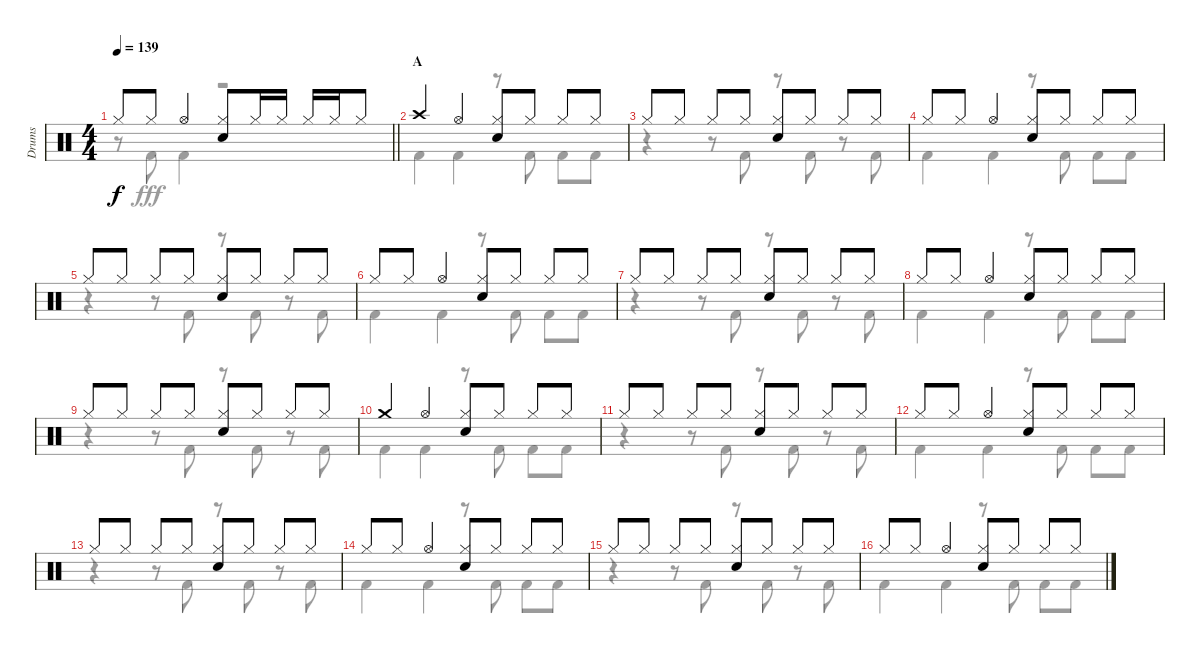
\track ("Drums" "Drums") {instrument percussion}
\staff {score}
\articulation defaults
\voice
\ts (4 4)
\tempo 139
\clef neutral
\barLineRight lightlight
\ks aminor "Hi-Hat (closed)".8{dy f} "Hi-Hat (closed)".8 "Hi-Hat (open)".4
("Hi-Hat (closed)" "Snare (hit) 2").8 "Hi-Hat (closed)".16 "Hi-Hat (closed)".16 "Hi-Hat (closed)".16 "Hi-Hat (closed)".16 "Hi-Hat (closed)".8 |
\section ("" "A")
"Crash high (hit)".4 "Hi-Hat (open)".4 ("Hi-Hat (closed)" "Snare (hit) 2").8 "Hi-Hat (closed)".8 "Hi-Hat (closed)".8 "Hi-Hat (closed)".8 |
"Hi-Hat (closed)".8 "Hi-Hat (closed)".8 "Hi-Hat (closed)".8 "Hi-Hat (closed)".8 ("Hi-Hat (closed)" "Snare (hit) 2").8 "Hi-Hat (closed)".8 "Hi-Hat (closed)".8 "Hi-Hat (closed)".8 |
"Hi-Hat (closed)".8 "Hi-Hat (closed)".8 "Hi-Hat (open)".4 ("Hi-Hat (closed)" "Snare (hit) 2").8 "Hi-Hat (closed)".8 "Hi-Hat (closed)".8 "Hi-Hat (closed)".8 |
"Hi-Hat (closed)".8 "Hi-Hat (closed)".8 "Hi-Hat (closed)".8 "Hi-Hat (closed)".8 ("Hi-Hat (closed)" "Snare (hit) 2").8 "Hi-Hat (closed)".8 "Hi-Hat (closed)".8 "Hi-Hat (closed)".8 |
"Hi-Hat (closed)".8 "Hi-Hat (closed)".8 "Hi-Hat (open)".4 ("Hi-Hat (closed)" "Snare (hit) 2").8 "Hi-Hat (closed)".8 "Hi-Hat (closed)".8 "Hi-Hat (closed)".8 |
"Hi-Hat (closed)".8 "Hi-Hat (closed)".8 "Hi-Hat (closed)".8 "Hi-Hat (closed)".8 ("Hi-Hat (closed)" "Snare (hit) 2").8 "Hi-Hat (closed)".8 "Hi-Hat (closed)".8 "Hi-Hat (closed)".8 |
"Hi-Hat (closed)".8 "Hi-Hat (closed)".8 "Hi-Hat (open)".4 ("Hi-Hat (closed)" "Snare (hit) 2").8 "Hi-Hat (closed)".8 "Hi-Hat (closed)".8 "Hi-Hat (closed)".8 |
"Hi-Hat (closed)".8 "Hi-Hat (closed)".8 "Hi-Hat (closed)".8 "Hi-Hat (closed)".8 ("Hi-Hat (closed)" "Snare (hit) 2").8 "Hi-Hat (closed)".8 "Hi-Hat (closed)".8 "Hi-Hat (closed)".8 |
"Crash medium (hit)".4 "Hi-Hat (open)".4 ("Hi-Hat (closed)" "Snare (hit) 2").8 "Hi-Hat (closed)".8 "Hi-Hat (closed)".8 "Hi-Hat (closed)".8 |
"Hi-Hat (closed)".8 "Hi-Hat (closed)".8 "Hi-Hat (closed)".8 "Hi-Hat (closed)".8 ("Hi-Hat (closed)" "Snare (hit) 2").8 "Hi-Hat (closed)".8 "Hi-Hat (closed)".8 "Hi-Hat (closed)".8 |
"Hi-Hat (closed)".8 "Hi-Hat (closed)".8 "Hi-Hat (open)".4 ("Hi-Hat (closed)" "Snare (hit) 2").8 "Hi-Hat (closed)".8 "Hi-Hat (closed)".8 "Hi-Hat (closed)".8 |
"Hi-Hat (closed)".8 "Hi-Hat (closed)".8 "Hi-Hat (closed)".8 "Hi-Hat (closed)".8 ("Hi-Hat (closed)" "Snare (hit) 2").8 "Hi-Hat (closed)".8 "Hi-Hat (closed)".8 "Hi-Hat (closed)".8 |
"Hi-Hat (closed)".8 "Hi-Hat (closed)".8 "Hi-Hat (open)".4 ("Hi-Hat (closed)" "Snare (hit) 2").8 "Hi-Hat (closed)".8 "Hi-Hat (closed)".8 "Hi-Hat (closed)".8 |
"Hi-Hat (closed)".8 "Hi-Hat (closed)".8 "Hi-Hat (closed)".8 "Hi-Hat (closed)".8 ("Hi-Hat (closed)" "Snare (hit) 2").8 "Hi-Hat (closed)".8 "Hi-Hat (closed)".8 "Hi-Hat (closed)".8 |
"Hi-Hat (closed)".8 "Hi-Hat (closed)".8 "Hi-Hat (open)".4 ("Hi-Hat (closed)" "Snare (hit) 2").8 "Hi-Hat (closed)".8 "Hi-Hat (closed)".8 "Hi-Hat (closed)".8
\voice
\clef neutral
\ottava regular
\simile none
\barLineRight lightlight
\ks aminor
r.8{dy fff} "Kick (hit) 2".8 "Kick (hit) 2".4 r.2 |
"Kick (hit) 2".4 "Kick (hit) 2".4 r.8 "Kick (hit) 2".8 "Kick (hit) 2".8 "Kick (hit) 2".8 |
r.4 r.8 "Kick (hit) 2".8 r.8 "Kick (hit) 2".8 r.8 "Kick (hit) 2".8 |
"Kick (hit) 2".4 "Kick (hit) 2".4 r.8 "Kick (hit) 2".8 "Kick (hit) 2".8 "Kick (hit) 2".8 |
r.4 r.8 "Kick (hit) 2".8 r.8 "Kick (hit) 2".8 r.8 "Kick (hit) 2".8 |
"Kick (hit) 2".4 "Kick (hit) 2".4 r.8 "Kick (hit) 2".8 "Kick (hit) 2".8 "Kick (hit) 2".8 |
r.4 r.8 "Kick (hit) 2".8 r.8 "Kick (hit) 2".8 r.8 "Kick (hit) 2".8 |
"Kick (hit) 2".4 "Kick (hit) 2".4 r.8 "Kick (hit) 2".8 "Kick (hit) 2".8 "Kick (hit) 2".8 |
r.4 r.8 "Kick (hit) 2".8 r.8 "Kick (hit) 2".8 r.8 "Kick (hit) 2".8 |
"Kick (hit) 2".4 "Kick (hit) 2".4 r.8 "Kick (hit) 2".8 "Kick (hit) 2".8 "Kick (hit) 2".8 |
r.4 r.8 "Kick (hit) 2".8 r.8 "Kick (hit) 2".8 r.8 "Kick (hit) 2".8 |
"Kick (hit) 2".4 "Kick (hit) 2".4 r.8 "Kick (hit) 2".8 "Kick (hit) 2".8 "Kick (hit) 2".8 |
r.4 r.8 "Kick (hit) 2".8 r.8 "Kick (hit) 2".8 r.8 "Kick (hit) 2".8 |
"Kick (hit) 2".4 "Kick (hit) 2".4 r.8 "Kick (hit) 2".8 "Kick (hit) 2".8 "Kick (hit) 2".8 |
r.4 r.8 "Kick (hit) 2".8 r.8 "Kick (hit) 2".8 r.8 "Kick (hit) 2".8 |
"Kick (hit) 2".4 "Kick (hit) 2".4 r.8 "Kick (hit) 2".8 "Kick (hit) 2".8 "Kick (hit) 2".8
